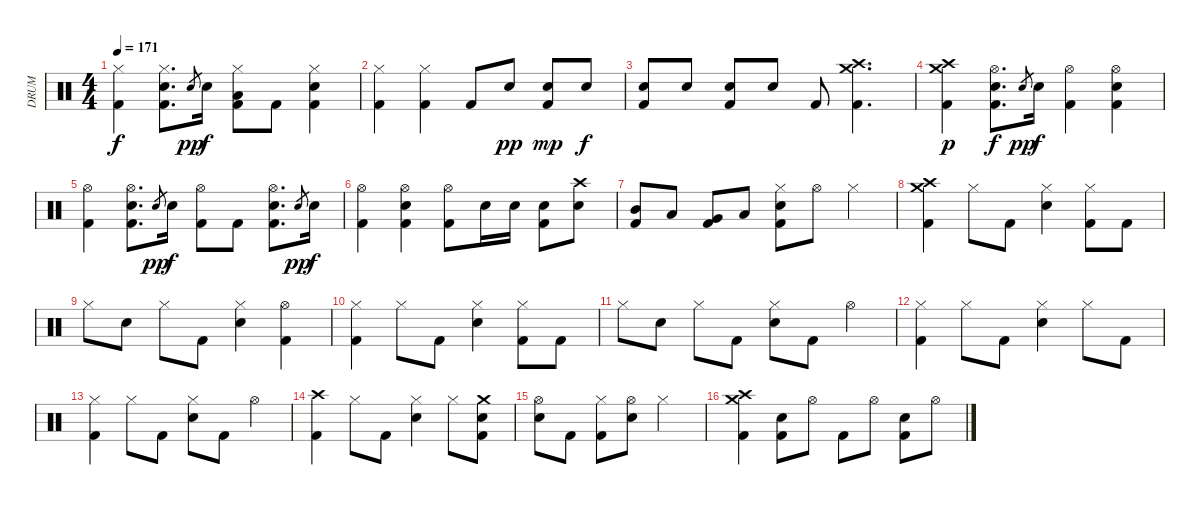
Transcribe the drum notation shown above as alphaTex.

\track ("DRUM" "DRUM") {instrument percussion}
\staff {score}
\articulation defaults
\ts (4 4)
\tempo 171
\clef neutral
\ks c
("Hi-Hat (closed)" "Kick (hit) 2").4{dy f} ("Hi-Hat (closed)" "Electric Snare (hit)" "Kick (hit) 2").8{d} "Electric Snare (hit)".8{gr dy pp} "Electric Snare (hit)".16{dy f} ("Hi-Hat (closed)" "Low Tom (hit)" "Kick (hit) 2").8 "Kick (hit) 2".8 ("Hi-Hat (closed)" "Electric Snare (hit)" "Kick (hit) 2").4 |
("Hi-Hat (closed)" "Kick (hit) 2").4 ("Hi-Hat (closed)" "Kick (hit) 2").4 "Kick (hit) 2".8 "Electric Snare (hit)".8{dy pp} ("Electric Snare (hit)" "Kick (hit) 2").8{dy mp} "Electric Snare (hit)".8{dy f} |
("Electric Snare (hit)" "Kick (hit) 2").8 "Electric Snare (hit)".8 ("Electric Snare (hit)" "Kick (hit) 2").8 "Electric Snare (hit)".8 "Kick (hit) 2".8 ("Crash high (hit)" "Crash medium (hit)" "Kick (hit) 2").4{d} |
("Crash high (hit)" "Crash medium (hit)" "Kick (hit) 2").4{dy p} ("Hi-Hat (open)" "Electric Snare (hit)" "Kick (hit) 2").8{d dy f} "Electric Snare (hit)".8{gr dy pp} "Electric Snare (hit)".16{dy f} ("Hi-Hat (open)" "Kick (hit) 2").4 ("Hi-Hat (open)" "Electric Snare (hit)" "Kick (hit) 2").4 |
("Hi-Hat (open)" "Kick (hit) 2").4 ("Hi-Hat (open)" "Electric Snare (hit)" "Kick (hit) 2").8{d} "Electric Snare (hit)".8{gr dy pp} "Electric Snare (hit)".16{dy f} ("Hi-Hat (open)" "Kick (hit) 2").8 "Kick (hit) 2".8 ("Hi-Hat (open)" "Electric Snare (hit)" "Kick (hit) 2").8{d} "Electric Snare (hit)".8{gr dy pp} "Electric Snare (hit)".16{dy f} |
("Hi-Hat (open)" "Kick (hit) 2").4 ("Hi-Hat (open)" "Electric Snare (hit)" "Kick (hit) 2").4 ("Hi-Hat (open)" "Kick (hit) 2").8 "Electric Snare (hit)".16 "Electric Snare (hit)".16 ("Electric Snare (hit)" "Kick (hit) 2").8 ("Crash high (hit)" "Electric Snare (hit)").8 |
("Mid Tom (hit)" "Kick (hit) 2").8 "Low Tom (hit)".8 ("Very Low Tom (hit)" "Kick (hit) 2").8 "Low Tom (hit)".8 ("Hi-Hat (closed)" "Electric Snare (hit)" "Kick (hit) 2").8 "Hi-Hat (open)".8 "Hi-Hat (closed)".4 |
("Crash medium (hit)" "Crash high (hit)" "Kick (hit) 2").4 "Hi-Hat (closed)".8 "Kick (hit) 2".8 ("Hi-Hat (closed)" "Electric Snare (hit)").4 ("Hi-Hat (closed)" "Kick (hit) 2").8 "Kick (hit) 2".8 |
"Hi-Hat (closed)".8 "Electric Snare (hit)".8 "Hi-Hat (closed)".8 "Kick (hit) 2".8 ("Hi-Hat (closed)" "Electric Snare (hit)").4 ("Hi-Hat (open)" "Kick (hit) 2").4 |
("Hi-Hat (closed)" "Kick (hit) 2").4 "Hi-Hat (closed)".8 "Kick (hit) 2".8 ("Hi-Hat (closed)" "Electric Snare (hit)").4 ("Hi-Hat (closed)" "Kick (hit) 2").8 "Kick (hit) 2".8 |
"Hi-Hat (closed)".8 "Electric Snare (hit)".8 "Hi-Hat (closed)".8 "Kick (hit) 2".8 ("Hi-Hat (closed)" "Electric Snare (hit)").8 "Kick (hit) 2".8 "Hi-Hat (open)".4 |
("Hi-Hat (closed)" "Kick (hit) 2").4 "Hi-Hat (closed)".8 "Kick (hit) 2".8 ("Hi-Hat (closed)" "Electric Snare (hit)").4 "Hi-Hat (closed)".8 "Kick (hit) 2".8 |
("Hi-Hat (closed)" "Kick (hit) 2").4 "Hi-Hat (closed)".8 "Kick (hit) 2".8 ("Hi-Hat (closed)" "Electric Snare (hit)").8 "Kick (hit) 2".8 "Hi-Hat (open)".4 |
("Crash high (hit)" "Kick (hit) 2").4 "Hi-Hat (closed)".8 "Kick (hit) 2".8 ("Hi-Hat (closed)" "Electric Snare (hit)").4 "Hi-Hat (closed)".8 ("Crash medium (hit)" "Electric Snare (hit)" "Kick (hit) 2").8 |
("Hi-Hat (open)" "Electric Snare (hit)").8 "Kick (hit) 2".8 ("Hi-Hat (closed)" "Kick (hit) 2").8 ("Hi-Hat (open)" "Electric Snare (hit)").8 "Hi-Hat (closed)".2 |
("Crash medium (hit)" "Crash high (hit)" "Kick (hit) 2").4 ("Electric Snare (hit)" "Kick (hit) 2").8 "Hi-Hat (open)".8 "Kick (hit) 2".8 "Hi-Hat (open)".8 ("Electric Snare (hit)" "Kick (hit) 2").8 "Hi-Hat (open)".8
